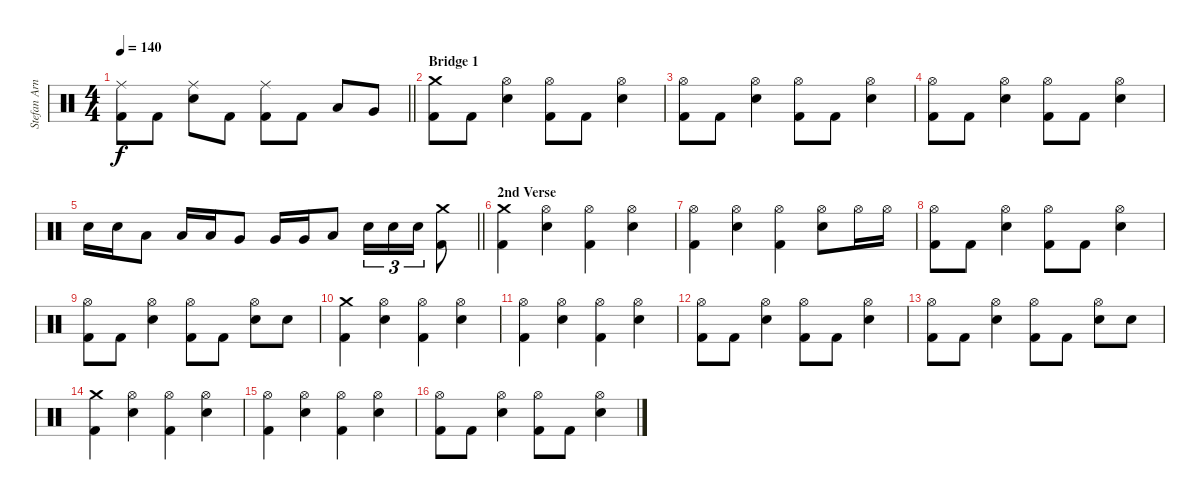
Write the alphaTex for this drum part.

\track ("Stefan Arnold" "Stefan Arn") {instrument percussion}
\staff {score}
\articulation defaults
\ts (4 4)
\tempo 140
\clef neutral
\barLineRight lightlight
\ks c
("Ride (middle)" "Kick (hit) 2").8{dy f} "Kick (hit) 2".8 ("Ride (middle)" "Electric Snare (hit)").8 "Kick (hit) 2".8 ("Ride (middle)" "Kick (hit) 2").8 "Kick (hit) 2".8 "Low Tom (hit)".8 "Very Low Tom (hit)".8 |
\section ("" "Bridge 1")
("Crash medium (hit)" "Kick (hit) 2").8 "Kick (hit) 2".8 ("Hi-Hat (open)" "Electric Snare (hit)").4 ("Hi-Hat (open)" "Kick (hit) 2").8 "Kick (hit) 2".8 ("Hi-Hat (open)" "Electric Snare (hit)").4 |
("Hi-Hat (open)" "Kick (hit) 2").8 "Kick (hit) 2".8 ("Hi-Hat (open)" "Electric Snare (hit)").4 ("Hi-Hat (open)" "Kick (hit) 2").8 "Kick (hit) 2".8 ("Hi-Hat (open)" "Electric Snare (hit)").4 |
("Hi-Hat (open)" "Kick (hit) 2").8 "Kick (hit) 2".8 ("Hi-Hat (open)" "Electric Snare (hit)").4 ("Hi-Hat (open)" "Kick (hit) 2").8 "Kick (hit) 2".8 ("Hi-Hat (open)" "Electric Snare (hit)").4 |
\barLineRight lightlight "Electric Snare (hit)".16 "Electric Snare (hit)".16 "Low Tom (hit)".8 "Low Tom (hit)".16 "Low Tom (hit)".16 "Very Low Tom (hit)".8 "Very Low Tom (hit)".16 "Very Low Tom (hit)".16 "Low Floor Tom (hit)".8 "Electric Snare (hit)".16{tu (3 2)} "Electric Snare (hit)".16{tu (3 2)} "Electric Snare (hit)".16{tu (3 2)}
("Crash medium (hit)" "Kick (hit) 2").8 |
\section ("" "2nd Verse")
("Crash medium (hit)" "Kick (hit) 2").4 ("Hi-Hat (open)" "Electric Snare (hit)").4 ("Hi-Hat (open)" "Kick (hit) 2").4 ("Hi-Hat (open)" "Electric Snare (hit)").4 |
("Hi-Hat (open)" "Kick (hit) 2").4 ("Hi-Hat (open)" "Electric Snare (hit)").4 ("Hi-Hat (open)" "Kick (hit) 2").4 ("Hi-Hat (open)" "Electric Snare (hit)").8 "Hi-Hat (open)".16 "Hi-Hat (open)".16 |
("Hi-Hat (open)" "Kick (hit) 2").8 "Kick (hit) 2".8 ("Hi-Hat (open)" "Electric Snare (hit)").4 ("Hi-Hat (open)" "Kick (hit) 2").8 "Kick (hit) 2".8 ("Hi-Hat (open)" "Electric Snare (hit)").4 |
("Hi-Hat (open)" "Kick (hit) 2").8 "Kick (hit) 2".8 ("Hi-Hat (open)" "Electric Snare (hit)").4 ("Hi-Hat (open)" "Kick (hit) 2").8 "Kick (hit) 2".8 ("Hi-Hat (open)" "Electric Snare (hit)").8 "Electric Snare (hit)".8 |
("Crash medium (hit)" "Kick (hit) 2").4 ("Hi-Hat (open)" "Electric Snare (hit)").4 ("Hi-Hat (open)" "Kick (hit) 2").4 ("Hi-Hat (open)" "Electric Snare (hit)").4 |
("Hi-Hat (open)" "Kick (hit) 2").4 ("Hi-Hat (open)" "Electric Snare (hit)").4 ("Hi-Hat (open)" "Kick (hit) 2").4 ("Hi-Hat (open)" "Electric Snare (hit)").4 |
("Hi-Hat (open)" "Kick (hit) 2").8 "Kick (hit) 2".8 ("Hi-Hat (open)" "Electric Snare (hit)").4 ("Hi-Hat (open)" "Kick (hit) 2").8 "Kick (hit) 2".8 ("Hi-Hat (open)" "Electric Snare (hit)").4 |
("Hi-Hat (open)" "Kick (hit) 2").8 "Kick (hit) 2".8 ("Hi-Hat (open)" "Electric Snare (hit)").4 ("Hi-Hat (open)" "Kick (hit) 2").8 "Kick (hit) 2".8 ("Hi-Hat (open)" "Electric Snare (hit)").8 "Electric Snare (hit)".8 |
("Crash medium (hit)" "Kick (hit) 2").4 ("Hi-Hat (open)" "Electric Snare (hit)").4 ("Hi-Hat (open)" "Kick (hit) 2").4 ("Hi-Hat (open)" "Electric Snare (hit)").4 |
("Hi-Hat (open)" "Kick (hit) 2").4 ("Hi-Hat (open)" "Electric Snare (hit)").4 ("Hi-Hat (open)" "Kick (hit) 2").4 ("Hi-Hat (open)" "Electric Snare (hit)").4 |
("Hi-Hat (open)" "Kick (hit) 2").8 "Kick (hit) 2".8 ("Hi-Hat (open)" "Electric Snare (hit)").4 ("Hi-Hat (open)" "Kick (hit) 2").8 "Kick (hit) 2".8 ("Hi-Hat (open)" "Electric Snare (hit)").4
